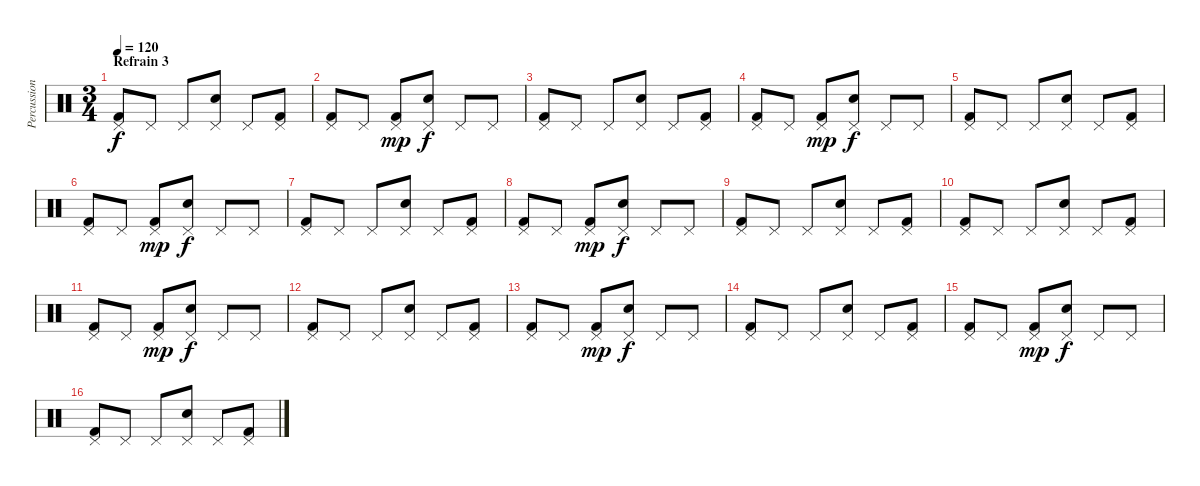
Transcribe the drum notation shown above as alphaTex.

\track ("Percussions" "Percussion") {instrument percussion}
\staff {score}
\articulation defaults
\ts (3 4)
\section ("" "Refrain 3")
\tempo 120
\clef neutral
\ks c
("Pedal Hi-Hat (hit)" "Kick (hit) 2").8{dy f} "Pedal Hi-Hat (hit)".8 "Pedal Hi-Hat (hit)".8 ("Pedal Hi-Hat (hit)" "Electric Snare (hit)").8 "Pedal Hi-Hat (hit)".8 ("Pedal Hi-Hat (hit)" "Kick (hit) 2").8 |
("Pedal Hi-Hat (hit)" "Kick (hit) 2").8 "Pedal Hi-Hat (hit)".8 ("Pedal Hi-Hat (hit)" "Kick (hit) 2").8{dy mp} ("Pedal Hi-Hat (hit)" "Electric Snare (hit)").8{dy f} "Pedal Hi-Hat (hit)".8 "Pedal Hi-Hat (hit)".8 |
("Pedal Hi-Hat (hit)" "Kick (hit) 2").8 "Pedal Hi-Hat (hit)".8 "Pedal Hi-Hat (hit)".8 ("Pedal Hi-Hat (hit)" "Electric Snare (hit)").8 "Pedal Hi-Hat (hit)".8 ("Pedal Hi-Hat (hit)" "Kick (hit) 2").8 |
("Pedal Hi-Hat (hit)" "Kick (hit) 2").8 "Pedal Hi-Hat (hit)".8 ("Pedal Hi-Hat (hit)" "Kick (hit) 2").8{dy mp} ("Pedal Hi-Hat (hit)" "Electric Snare (hit)").8{dy f} "Pedal Hi-Hat (hit)".8 "Pedal Hi-Hat (hit)".8 |
("Pedal Hi-Hat (hit)" "Kick (hit) 2").8 "Pedal Hi-Hat (hit)".8 "Pedal Hi-Hat (hit)".8 ("Pedal Hi-Hat (hit)" "Electric Snare (hit)").8 "Pedal Hi-Hat (hit)".8 ("Pedal Hi-Hat (hit)" "Kick (hit) 2").8 |
("Pedal Hi-Hat (hit)" "Kick (hit) 2").8 "Pedal Hi-Hat (hit)".8 ("Pedal Hi-Hat (hit)" "Kick (hit) 2").8{dy mp} ("Pedal Hi-Hat (hit)" "Electric Snare (hit)").8{dy f} "Pedal Hi-Hat (hit)".8 "Pedal Hi-Hat (hit)".8 |
("Pedal Hi-Hat (hit)" "Kick (hit) 2").8 "Pedal Hi-Hat (hit)".8 "Pedal Hi-Hat (hit)".8 ("Pedal Hi-Hat (hit)" "Electric Snare (hit)").8 "Pedal Hi-Hat (hit)".8 ("Pedal Hi-Hat (hit)" "Kick (hit) 2").8 |
("Pedal Hi-Hat (hit)" "Kick (hit) 2").8 "Pedal Hi-Hat (hit)".8 ("Pedal Hi-Hat (hit)" "Kick (hit) 2").8{dy mp} ("Pedal Hi-Hat (hit)" "Electric Snare (hit)").8{dy f} "Pedal Hi-Hat (hit)".8 "Pedal Hi-Hat (hit)".8 |
("Pedal Hi-Hat (hit)" "Kick (hit) 2").8 "Pedal Hi-Hat (hit)".8 "Pedal Hi-Hat (hit)".8 ("Pedal Hi-Hat (hit)" "Electric Snare (hit)").8 "Pedal Hi-Hat (hit)".8 ("Pedal Hi-Hat (hit)" "Kick (hit) 2").8 |
("Pedal Hi-Hat (hit)" "Kick (hit) 2").8 "Pedal Hi-Hat (hit)".8 "Pedal Hi-Hat (hit)".8 ("Pedal Hi-Hat (hit)" "Electric Snare (hit)").8 "Pedal Hi-Hat (hit)".8 ("Pedal Hi-Hat (hit)" "Kick (hit) 2").8 |
("Pedal Hi-Hat (hit)" "Kick (hit) 2").8 "Pedal Hi-Hat (hit)".8 ("Pedal Hi-Hat (hit)" "Kick (hit) 2").8{dy mp} ("Pedal Hi-Hat (hit)" "Electric Snare (hit)").8{dy f} "Pedal Hi-Hat (hit)".8 "Pedal Hi-Hat (hit)".8 |
("Pedal Hi-Hat (hit)" "Kick (hit) 2").8 "Pedal Hi-Hat (hit)".8 "Pedal Hi-Hat (hit)".8 ("Pedal Hi-Hat (hit)" "Electric Snare (hit)").8 "Pedal Hi-Hat (hit)".8 ("Pedal Hi-Hat (hit)" "Kick (hit) 2").8 |
("Pedal Hi-Hat (hit)" "Kick (hit) 2").8 "Pedal Hi-Hat (hit)".8 ("Pedal Hi-Hat (hit)" "Kick (hit) 2").8{dy mp} ("Pedal Hi-Hat (hit)" "Electric Snare (hit)").8{dy f} "Pedal Hi-Hat (hit)".8 "Pedal Hi-Hat (hit)".8 |
("Pedal Hi-Hat (hit)" "Kick (hit) 2").8 "Pedal Hi-Hat (hit)".8 "Pedal Hi-Hat (hit)".8 ("Pedal Hi-Hat (hit)" "Electric Snare (hit)").8 "Pedal Hi-Hat (hit)".8 ("Pedal Hi-Hat (hit)" "Kick (hit) 2").8 |
("Pedal Hi-Hat (hit)" "Kick (hit) 2").8 "Pedal Hi-Hat (hit)".8 ("Pedal Hi-Hat (hit)" "Kick (hit) 2").8{dy mp} ("Pedal Hi-Hat (hit)" "Electric Snare (hit)").8{dy f} "Pedal Hi-Hat (hit)".8 "Pedal Hi-Hat (hit)".8 |
("Pedal Hi-Hat (hit)" "Kick (hit) 2").8 "Pedal Hi-Hat (hit)".8 "Pedal Hi-Hat (hit)".8 ("Pedal Hi-Hat (hit)" "Electric Snare (hit)").8 "Pedal Hi-Hat (hit)".8 ("Pedal Hi-Hat (hit)" "Kick (hit) 2").8
